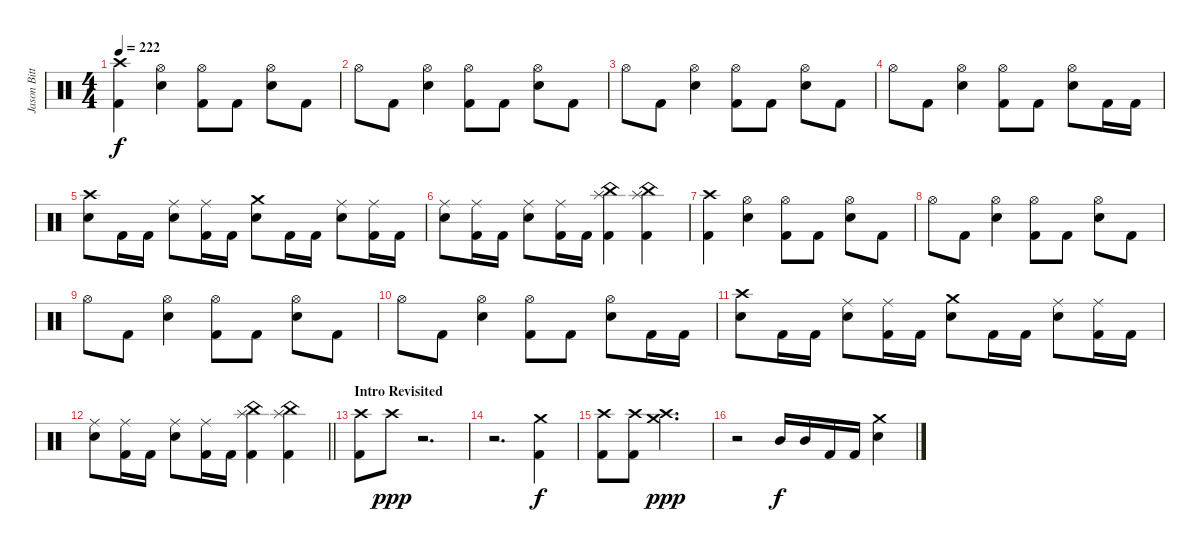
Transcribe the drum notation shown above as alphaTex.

\track ("Jason Bittner" "Jason Bitt") {instrument percussion}
\staff {score}
\articulation defaults
\ts (4 4)
\tempo 222
\clef neutral
\ks c
("Crash high (hit)" "Kick (hit) 2").4{dy f} ("Hi-Hat (open)" "Electric Snare (hit)").4 ("Hi-Hat (open)" "Kick (hit) 2").8 "Kick (hit) 2".8 ("Hi-Hat (open)" "Electric Snare (hit)").8 "Kick (hit) 2".8 |
"Hi-Hat (open)".8 "Kick (hit) 2".8 ("Hi-Hat (open)" "Electric Snare (hit)").4 ("Hi-Hat (open)" "Kick (hit) 2").8 "Kick (hit) 2".8 ("Hi-Hat (open)" "Electric Snare (hit)").8 "Kick (hit) 2".8 |
"Hi-Hat (open)".8 "Kick (hit) 2".8 ("Hi-Hat (open)" "Electric Snare (hit)").4 ("Hi-Hat (open)" "Kick (hit) 2").8 "Kick (hit) 2".8 ("Hi-Hat (open)" "Electric Snare (hit)").8 "Kick (hit) 2".8 |
"Hi-Hat (open)".8 "Kick (hit) 2".8 ("Hi-Hat (open)" "Electric Snare (hit)").4 ("Hi-Hat (open)" "Kick (hit) 2").8 "Kick (hit) 2".8 ("Hi-Hat (open)" "Electric Snare (hit)").8 "Kick (hit) 2".16 "Kick (hit) 2".16 |
("Crash high (hit)" "Electric Snare (hit)").8 "Kick (hit) 2".16 "Kick (hit) 2".16 ("Ride (middle)" "Electric Snare (hit)").8 ("Ride (middle)" "Kick (hit) 2").16 "Kick (hit) 2".16 ("Crash medium (hit)" "Electric Snare (hit)").8 "Kick (hit) 2".16 "Kick (hit) 2".16 ("Ride (middle)" "Electric Snare (hit)").8 ("Ride (middle)" "Kick (hit) 2").16 "Kick (hit) 2".16 |
("Ride (middle)" "Electric Snare (hit)").8 ("Ride (middle)" "Kick (hit) 2").16 "Kick (hit) 2".16 ("Ride (middle)" "Electric Snare (hit)").8 ("Ride (middle)" "Kick (hit) 2").16 "Kick (hit) 2".16 ("China (hit)" "Splash (hit)" "Kick (hit) 2").4 ("China (hit)" "Splash (hit)" "Kick (hit) 2").4 |
("Crash high (hit)" "Kick (hit) 2").4 ("Hi-Hat (open)" "Electric Snare (hit)").4 ("Hi-Hat (open)" "Kick (hit) 2").8 "Kick (hit) 2".8 ("Hi-Hat (open)" "Electric Snare (hit)").8 "Kick (hit) 2".8 |
"Hi-Hat (open)".8 "Kick (hit) 2".8 ("Hi-Hat (open)" "Electric Snare (hit)").4 ("Hi-Hat (open)" "Kick (hit) 2").8 "Kick (hit) 2".8 ("Hi-Hat (open)" "Electric Snare (hit)").8 "Kick (hit) 2".8 |
"Hi-Hat (open)".8 "Kick (hit) 2".8 ("Hi-Hat (open)" "Electric Snare (hit)").4 ("Hi-Hat (open)" "Kick (hit) 2").8 "Kick (hit) 2".8 ("Hi-Hat (open)" "Electric Snare (hit)").8 "Kick (hit) 2".8 |
"Hi-Hat (open)".8 "Kick (hit) 2".8 ("Hi-Hat (open)" "Electric Snare (hit)").4 ("Hi-Hat (open)" "Kick (hit) 2").8 "Kick (hit) 2".8 ("Hi-Hat (open)" "Electric Snare (hit)").8 "Kick (hit) 2".16 "Kick (hit) 2".16 |
("Crash high (hit)" "Electric Snare (hit)").8 "Kick (hit) 2".16 "Kick (hit) 2".16 ("Ride (middle)" "Electric Snare (hit)").8 ("Ride (middle)" "Kick (hit) 2").16 "Kick (hit) 2".16 ("Crash medium (hit)" "Electric Snare (hit)").8 "Kick (hit) 2".16 "Kick (hit) 2".16 ("Ride (middle)" "Electric Snare (hit)").8 ("Ride (middle)" "Kick (hit) 2").16 "Kick (hit) 2".16 |
\barLineRight lightlight
("Ride (middle)" "Electric Snare (hit)").8 ("Ride (middle)" "Kick (hit) 2").16 "Kick (hit) 2".16 ("Ride (middle)" "Electric Snare (hit)").8 ("Ride (middle)" "Kick (hit) 2").16 "Kick (hit) 2".16 ("China (hit)" "Splash (hit)" "Kick (hit) 2").4 ("China (hit)" "Splash (hit)" "Kick (hit) 2").4 |
\section ("" "Intro Revisited")
("Crash high (hit)" "Kick (hit) 2").8 "Crash high (hit)".8{dy ppp} r.2{d} |
r.2{d} ("Crash medium (hit)" "Kick (hit) 2").4{dy f} |
("Crash high (hit)" "Kick (hit) 2").8 ("Crash high (hit)" "Kick (hit) 2").8 ("Crash medium (hit)" "Crash high (hit)").2{d dy ppp} |
r.2 "Mid Tom (hit)".16{dy f} "Mid Tom (hit)".16 "Kick (hit) 2".16 "Kick (hit) 2".16 ("Crash medium (hit)" "Electric Snare (hit)").4
